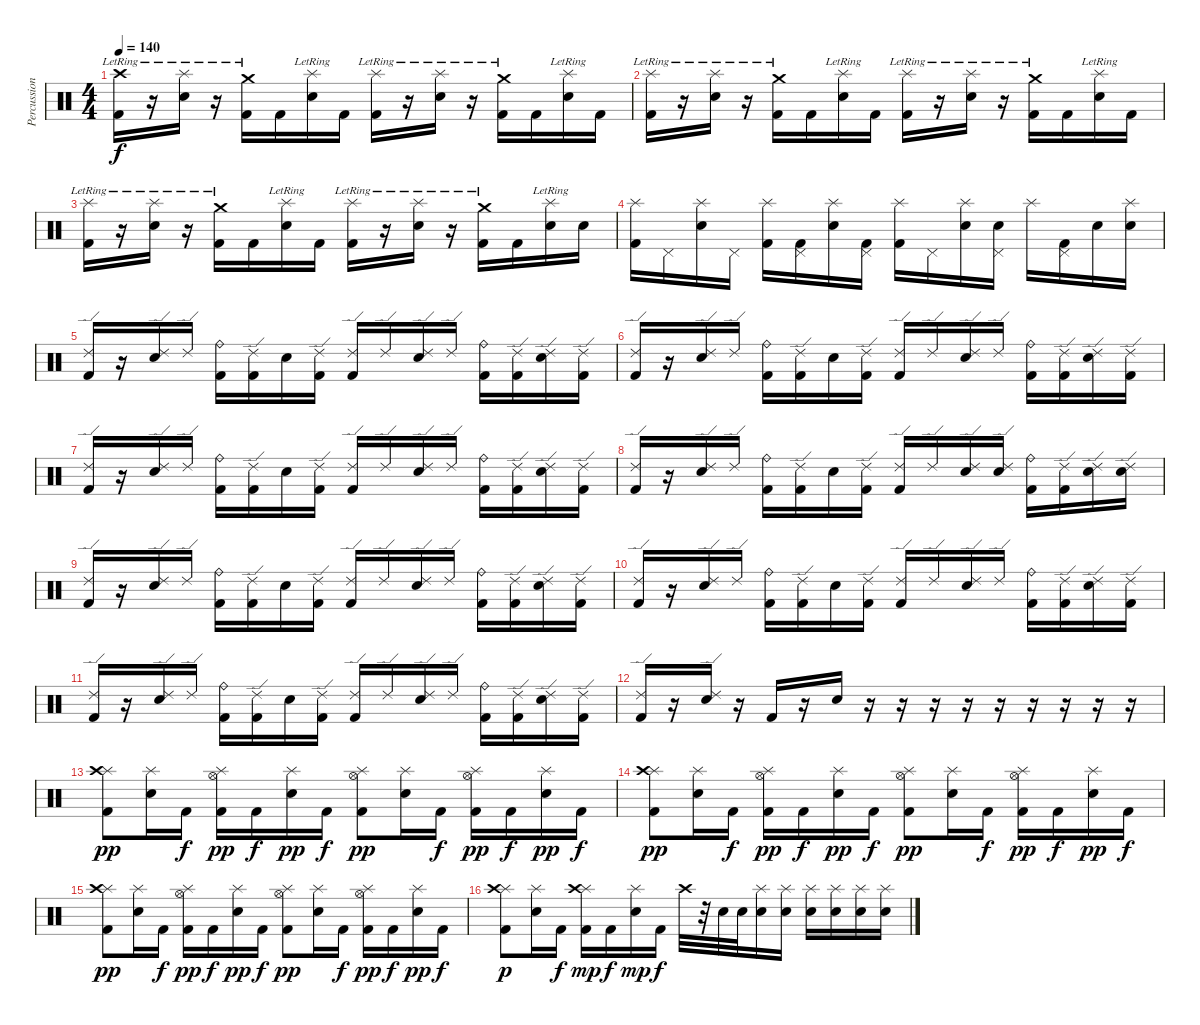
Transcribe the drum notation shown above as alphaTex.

\track ("Percussion" "Percussion") {instrument percussion}
\staff {score}
\articulation defaults
\ts (4 4)
\tempo 140
\clef neutral
\ks c
("Crash high (hit)"{lr} "Kick (hit) 2").16{dy f} r.16 ("Splash (hit)"{lr} "Electric Snare (hit)").16 r.16 ("Crash medium (hit)"{lr} "Kick (hit) 2").16 "Kick (hit) 2".16 ("Splash (hit)"{lr} "Electric Snare (hit)").16 "Kick (hit) 2".16 ("Splash (hit)"{lr} "Kick (hit) 2").16 r.16 ("Splash (hit)"{lr} "Electric Snare (hit)").16 r.16 ("Crash medium (hit)"{lr} "Kick (hit) 2").16 "Kick (hit) 2".16 ("Splash (hit)"{lr} "Electric Snare (hit)").16 "Kick (hit) 2".16 |
("Splash (hit)"{lr} "Kick (hit) 2").16 r.16 ("Splash (hit)"{lr} "Electric Snare (hit)").16 r.16 ("Crash medium (hit)"{lr} "Kick (hit) 2").16 "Kick (hit) 2".16 ("Splash (hit)"{lr} "Electric Snare (hit)").16 "Kick (hit) 2".16 ("Splash (hit)"{lr} "Kick (hit) 2").16 r.16 ("Splash (hit)"{lr} "Electric Snare (hit)").16 r.16 ("Crash medium (hit)"{lr} "Kick (hit) 2").16 "Kick (hit) 2".16 ("Splash (hit)"{lr} "Electric Snare (hit)").16 "Kick (hit) 2".16 |
("Splash (hit)"{lr} "Kick (hit) 2").16 r.16 ("Splash (hit)"{lr} "Electric Snare (hit)").16 r.16 ("Crash medium (hit)"{lr} "Kick (hit) 2").16 "Kick (hit) 2".16 ("Splash (hit)"{lr} "Electric Snare (hit)").16 "Kick (hit) 2".16 ("Splash (hit)"{lr} "Kick (hit) 2").16 r.16 ("Splash (hit)"{lr} "Electric Snare (hit)").16 r.16 ("Crash medium (hit)"{lr} "Kick (hit) 2").16 "Kick (hit) 2".16 ("Splash (hit)"{lr} "Electric Snare (hit)").16 "Electric Snare (hit)".16 |
("Splash (hit)" "Kick (hit) 2").16 "Pedal Hi-Hat (hit)".16 ("Splash (hit)" "Electric Snare (hit)").16 "Pedal Hi-Hat (hit)".16 ("Splash (hit)" "Kick (hit) 2").16 ("Pedal Hi-Hat (hit)" "Kick (hit) 2").16 ("Splash (hit)" "Electric Snare (hit)").16 ("Pedal Hi-Hat (hit)" "Kick (hit) 2").16 ("Splash (hit)" "Kick (hit) 2").16 "Pedal Hi-Hat (hit)".16 ("Splash (hit)" "Electric Snare (hit)").16 ("Pedal Hi-Hat (hit)" "Electric Snare (hit)").16 "Splash (hit)".16 ("Pedal Hi-Hat (hit)" "Kick (hit) 2").16 "Electric Snare (hit)".16 ("Splash (hit)" "Electric Snare (hit)").16 |
("Ride (edge) 2" "Kick (hit) 2").16 r.16 ("Ride (edge) 2" "Electric Snare (hit)").16 "Ride (edge) 2".16 ("Ride (bell)" "Kick (hit) 2").16 ("Ride (edge) 2" "Kick (hit) 2").16 "Electric Snare (hit)".16 ("Ride (edge) 2" "Kick (hit) 2").16 ("Ride (edge) 2" "Kick (hit) 2").16 "Ride (edge) 2".16 ("Ride (edge) 2" "Electric Snare (hit)").16 "Ride (edge) 2".16 ("Ride (bell)" "Kick (hit) 2").16 ("Ride (edge) 2" "Kick (hit) 2").16 ("Ride (edge) 2" "Electric Snare (hit)").16 ("Ride (edge) 2" "Kick (hit) 2").16 |
("Ride (edge) 2" "Kick (hit) 2").16 r.16 ("Ride (edge) 2" "Electric Snare (hit)").16 "Ride (edge) 2".16 ("Ride (bell)" "Kick (hit) 2").16 ("Ride (edge) 2" "Kick (hit) 2").16 "Electric Snare (hit)".16 ("Ride (edge) 2" "Kick (hit) 2").16 ("Ride (edge) 2" "Kick (hit) 2").16 "Ride (edge) 2".16 ("Ride (edge) 2" "Electric Snare (hit)").16 "Ride (edge) 2".16 ("Ride (bell)" "Kick (hit) 2").16 ("Ride (edge) 2" "Kick (hit) 2").16 ("Ride (edge) 2" "Electric Snare (hit)").16 ("Ride (edge) 2" "Kick (hit) 2").16 |
("Ride (edge) 2" "Kick (hit) 2").16 r.16 ("Ride (edge) 2" "Electric Snare (hit)").16 "Ride (edge) 2".16 ("Ride (bell)" "Kick (hit) 2").16 ("Ride (edge) 2" "Kick (hit) 2").16 "Electric Snare (hit)".16 ("Ride (edge) 2" "Kick (hit) 2").16 ("Ride (edge) 2" "Kick (hit) 2").16 "Ride (edge) 2".16 ("Ride (edge) 2" "Electric Snare (hit)").16 "Ride (edge) 2".16 ("Ride (bell)" "Kick (hit) 2").16 ("Ride (edge) 2" "Kick (hit) 2").16 ("Ride (edge) 2" "Electric Snare (hit)").16 ("Ride (edge) 2" "Kick (hit) 2").16 |
("Ride (edge) 2" "Kick (hit) 2").16 r.16 ("Ride (edge) 2" "Electric Snare (hit)").16 "Ride (edge) 2".16 ("Ride (bell)" "Kick (hit) 2").16 ("Ride (edge) 2" "Kick (hit) 2").16 "Electric Snare (hit)".16 ("Ride (edge) 2" "Kick (hit) 2").16 ("Ride (edge) 2" "Kick (hit) 2").16 "Ride (edge) 2".16 ("Ride (edge) 2" "Electric Snare (hit)").16 ("Ride (edge) 2" "Electric Snare (hit)").16 ("Ride (bell)" "Kick (hit) 2").16 ("Ride (edge) 2" "Kick (hit) 2").16 ("Ride (edge) 2" "Electric Snare (hit)").16 ("Ride (edge) 2" "Electric Snare (hit)").16 |
("Ride (edge) 2" "Kick (hit) 2").16 r.16 ("Ride (edge) 2" "Electric Snare (hit)").16 "Ride (edge) 2".16 ("Ride (bell)" "Kick (hit) 2").16 ("Ride (edge) 2" "Kick (hit) 2").16 "Electric Snare (hit)".16 ("Ride (edge) 2" "Kick (hit) 2").16 ("Ride (edge) 2" "Kick (hit) 2").16 "Ride (edge) 2".16 ("Ride (edge) 2" "Electric Snare (hit)").16 "Ride (edge) 2".16 ("Ride (bell)" "Kick (hit) 2").16 ("Ride (edge) 2" "Kick (hit) 2").16 ("Ride (edge) 2" "Electric Snare (hit)").16 ("Ride (edge) 2" "Kick (hit) 2").16 |
("Ride (edge) 2" "Kick (hit) 2").16 r.16 ("Ride (edge) 2" "Electric Snare (hit)").16 "Ride (edge) 2".16 ("Ride (bell)" "Kick (hit) 2").16 ("Ride (edge) 2" "Kick (hit) 2").16 "Electric Snare (hit)".16 ("Ride (edge) 2" "Kick (hit) 2").16 ("Ride (edge) 2" "Kick (hit) 2").16 "Ride (edge) 2".16 ("Ride (edge) 2" "Electric Snare (hit)").16 "Ride (edge) 2".16 ("Ride (bell)" "Kick (hit) 2").16 ("Ride (edge) 2" "Kick (hit) 2").16 ("Ride (edge) 2" "Electric Snare (hit)").16 ("Ride (edge) 2" "Kick (hit) 2").16 |
("Ride (edge) 2" "Kick (hit) 2").16 r.16 ("Ride (edge) 2" "Electric Snare (hit)").16 "Ride (edge) 2".16 ("Ride (bell)" "Kick (hit) 2").16 ("Ride (edge) 2" "Kick (hit) 2").16 "Electric Snare (hit)".16 ("Ride (edge) 2" "Kick (hit) 2").16 ("Ride (edge) 2" "Kick (hit) 2").16 "Ride (edge) 2".16 ("Ride (edge) 2" "Electric Snare (hit)").16 "Ride (edge) 2".16 ("Ride (bell)" "Kick (hit) 2").16 ("Ride (edge) 2" "Kick (hit) 2").16 ("Ride (edge) 2" "Electric Snare (hit)").16 ("Ride (edge) 2" "Kick (hit) 2").16 |
("Ride (edge) 2" "Kick (hit) 2").16 r.16 ("Ride (edge) 2" "Electric Snare (hit)").16 r.16 "Kick (hit) 2".16 r.16 "Electric Snare (hit)".16 r.16 r.16 r.16 r.16 r.16 r.16 r.16 r.16 r.16 |
("Splash (hit)" "Crash high (hit)" "Kick (hit) 2").8{dy pp} ("Splash (hit)" "Electric Snare (hit)").16 "Kick (hit) 2".16{dy f} ("Splash (hit)" "Hi-Hat (open)" "Kick (hit) 2").16{dy pp} "Kick (hit) 2".16{dy f} ("Splash (hit)" "Electric Snare (hit)").16{dy pp} "Kick (hit) 2".16{dy f} ("Splash (hit)" "Hi-Hat (open)" "Kick (hit) 2").8{dy pp} ("Splash (hit)" "Electric Snare (hit)").16 "Kick (hit) 2".16{dy f} ("Splash (hit)" "Hi-Hat (open)" "Kick (hit) 2").16{dy pp} "Kick (hit) 2".16{dy f} ("Splash (hit)" "Electric Snare (hit)").16{dy pp} "Kick (hit) 2".16{dy f} |
("Splash (hit)" "Crash high (hit)" "Kick (hit) 2").8{dy pp} ("Splash (hit)" "Electric Snare (hit)").16 "Kick (hit) 2".16{dy f} ("Splash (hit)" "Hi-Hat (open)" "Kick (hit) 2").16{dy pp} "Kick (hit) 2".16{dy f} ("Splash (hit)" "Electric Snare (hit)").16{dy pp} "Kick (hit) 2".16{dy f} ("Splash (hit)" "Hi-Hat (open)" "Kick (hit) 2").8{dy pp} ("Splash (hit)" "Electric Snare (hit)").16 "Kick (hit) 2".16{dy f} ("Splash (hit)" "Hi-Hat (open)" "Kick (hit) 2").16{dy pp} "Kick (hit) 2".16{dy f} ("Splash (hit)" "Electric Snare (hit)").16{dy pp} "Kick (hit) 2".16{dy f} |
("Splash (hit)" "Crash high (hit)" "Kick (hit) 2").8{dy pp} ("Splash (hit)" "Electric Snare (hit)").16 "Kick (hit) 2".16{dy f} ("Splash (hit)" "Hi-Hat (open)" "Kick (hit) 2").16{dy pp} "Kick (hit) 2".16{dy f} ("Splash (hit)" "Electric Snare (hit)").16{dy pp} "Kick (hit) 2".16{dy f} ("Splash (hit)" "Hi-Hat (open)" "Kick (hit) 2").8{dy pp} ("Splash (hit)" "Electric Snare (hit)").16 "Kick (hit) 2".16{dy f} ("Splash (hit)" "Hi-Hat (open)" "Kick (hit) 2").16{dy pp} "Kick (hit) 2".16{dy f} ("Splash (hit)" "Electric Snare (hit)").16{dy pp} "Kick (hit) 2".16{dy f} |
("Splash (hit)" "Crash high (hit)" "Kick (hit) 2").8{dy p} ("Splash (hit)" "Electric Snare (hit)").16 "Kick (hit) 2".16{dy f} ("Splash (hit)" "Crash high (hit)" "Kick (hit) 2").16{dy mp} "Kick (hit) 2".16{dy f} ("Splash (hit)" "Electric Snare (hit)").16{dy mp} "Kick (hit) 2".16{dy f} "Crash high (hit)".32 r.32 "Electric Snare (hit)".32 "Electric Snare (hit)".32 ("Splash (hit)" "Electric Snare (hit)").16 ("Splash (hit)" "Electric Snare (hit)").16 ("Splash (hit)" "Electric Snare (hit)").16 ("Splash (hit)" "Electric Snare (hit)").16 ("Splash (hit)" "Electric Snare (hit)").16 ("Splash (hit)" "Electric Snare (hit)").16
